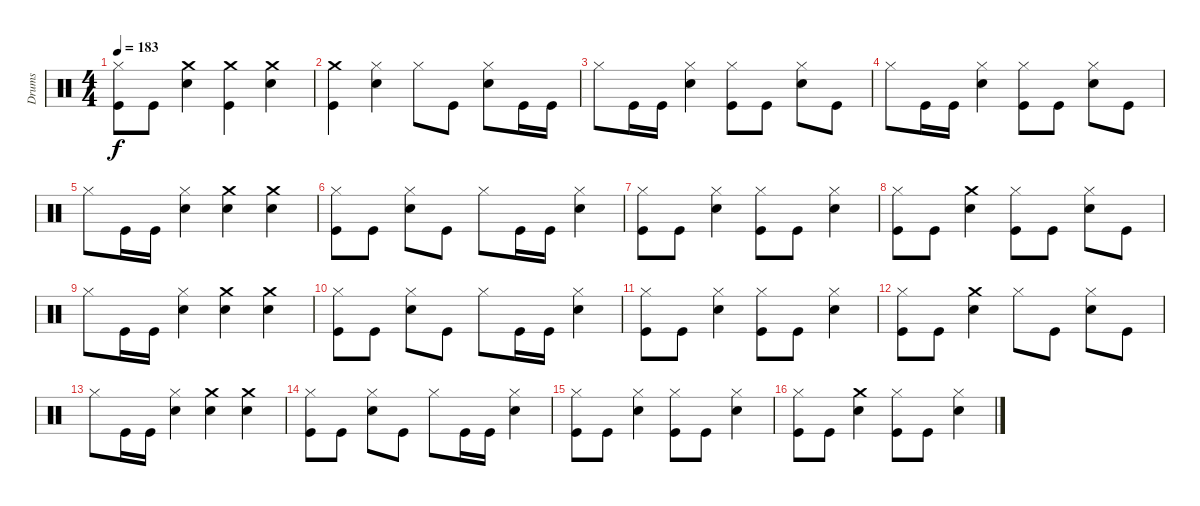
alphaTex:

\track ("Drums" "Drums") {instrument percussion}
\staff {score}
\articulation defaults
\ts (4 4)
\tempo 183
\clef neutral
\ks c
("Kick (hit)" "Hi-Hat (closed)").8{dy f} "Kick (hit)".8 ("Crash medium (hit)" "Snare (hit) 2").4 ("Kick (hit)" "Crash medium (hit)").4 ("Crash medium (hit)" "Snare (hit) 2").4 |
("Kick (hit)" "Crash medium (hit)").4 ("Hi-Hat (closed)" "Snare (hit) 2").4 "Hi-Hat (closed)".8 "Kick (hit)".8 ("Snare (hit) 2" "Hi-Hat (closed)").8 "Kick (hit)".16 "Kick (hit)".16 |
"Hi-Hat (closed)".8 "Kick (hit)".16 "Kick (hit)".16 ("Snare (hit) 2" "Hi-Hat (closed)").4 ("Hi-Hat (closed)" "Kick (hit)").8 "Kick (hit)".8 ("Snare (hit) 2" "Hi-Hat (closed)").8 "Kick (hit)".8 |
"Hi-Hat (closed)".8 "Kick (hit)".16 "Kick (hit)".16 ("Snare (hit) 2" "Hi-Hat (closed)").4 ("Hi-Hat (closed)" "Kick (hit)").8 "Kick (hit)".8 ("Snare (hit) 2" "Hi-Hat (closed)").8 "Kick (hit)".8 |
"Hi-Hat (closed)".8 "Kick (hit)".16 "Kick (hit)".16 ("Snare (hit) 2" "Hi-Hat (closed)").4 ("Crash medium (hit)" "Snare (hit) 2").4 ("Crash medium (hit)" "Snare (hit) 2").4 |
("Kick (hit)" "Hi-Hat (closed)").8 "Kick (hit)".8 ("Snare (hit) 2" "Hi-Hat (closed)").8 "Kick (hit)".8 "Hi-Hat (closed)".8 "Kick (hit)".16 "Kick (hit)".16 ("Snare (hit) 2" "Hi-Hat (closed)").4 |
("Kick (hit)" "Hi-Hat (closed)").8 "Kick (hit)".8 ("Snare (hit) 2" "Hi-Hat (closed)").4 ("Kick (hit)" "Hi-Hat (closed)").8 "Kick (hit)".8 ("Snare (hit) 2" "Hi-Hat (closed)").4 |
("Kick (hit)" "Hi-Hat (closed)").8 "Kick (hit)".8 ("Crash medium (hit)" "Snare (hit) 2").4 ("Kick (hit)" "Hi-Hat (closed)").8 "Kick (hit)".8 ("Snare (hit) 2" "Hi-Hat (closed)").8 "Kick (hit)".8 |
"Hi-Hat (closed)".8 "Kick (hit)".16 "Kick (hit)".16 ("Snare (hit) 2" "Hi-Hat (closed)").4 ("Crash medium (hit)" "Snare (hit) 2").4 ("Crash medium (hit)" "Snare (hit) 2").4 |
("Kick (hit)" "Hi-Hat (closed)").8 "Kick (hit)".8 ("Snare (hit) 2" "Hi-Hat (closed)").8 "Kick (hit)".8 "Hi-Hat (closed)".8 "Kick (hit)".16 "Kick (hit)".16 ("Snare (hit) 2" "Hi-Hat (closed)").4 |
("Kick (hit)" "Hi-Hat (closed)").8 "Kick (hit)".8 ("Snare (hit) 2" "Hi-Hat (closed)").4 ("Kick (hit)" "Hi-Hat (closed)").8 "Kick (hit)".8 ("Snare (hit) 2" "Hi-Hat (closed)").4 |
("Kick (hit)" "Hi-Hat (closed)").8 "Kick (hit)".8 ("Crash medium (hit)" "Snare (hit) 2").4 "Hi-Hat (closed)".8 "Kick (hit)".8 ("Snare (hit) 2" "Hi-Hat (closed)").8 "Kick (hit)".8 |
"Hi-Hat (closed)".8 "Kick (hit)".16 "Kick (hit)".16 ("Snare (hit) 2" "Hi-Hat (closed)").4 ("Crash medium (hit)" "Snare (hit) 2").4 ("Crash medium (hit)" "Snare (hit) 2").4 |
("Kick (hit)" "Hi-Hat (closed)").8 "Kick (hit)".8 ("Snare (hit) 2" "Hi-Hat (closed)").8 "Kick (hit)".8 "Hi-Hat (closed)".8 "Kick (hit)".16 "Kick (hit)".16 ("Snare (hit) 2" "Hi-Hat (closed)").4 |
("Kick (hit)" "Hi-Hat (closed)").8 "Kick (hit)".8 ("Snare (hit) 2" "Hi-Hat (closed)").4 ("Kick (hit)" "Hi-Hat (closed)").8 "Kick (hit)".8 ("Snare (hit) 2" "Hi-Hat (closed)").4 |
("Kick (hit)" "Hi-Hat (closed)").8 "Kick (hit)".8 ("Crash medium (hit)" "Snare (hit) 2").4 ("Kick (hit)" "Hi-Hat (closed)").8 "Kick (hit)".8 ("Snare (hit) 2" "Hi-Hat (closed)").4
